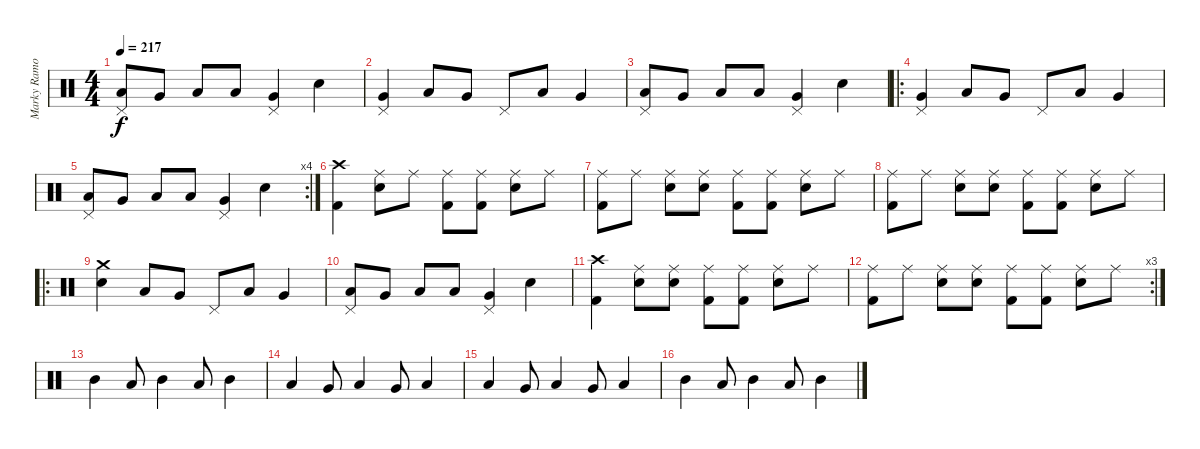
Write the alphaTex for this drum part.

\track ("Marky Ramone" "Marky Ramo") {instrument percussion}
\staff {score}
\articulation defaults
\ts (4 4)
\tempo 217
\clef neutral
\ks c
("Pedal Hi-Hat (hit)" "Low Tom (hit)").8{dy f} "Very Low Tom (hit)".8 "Low Floor Tom (hit)".8 "Low Tom (hit)".8 ("Pedal Hi-Hat (hit)" "Very Low Tom (hit)").4 "Electric Snare (hit)".4 |
("Pedal Hi-Hat (hit)" "Very Low Tom (hit)").4 "Low Tom (hit)".8 "Very Low Tom (hit)".8 "Pedal Hi-Hat (hit)".8 "Low Tom (hit)".8 "Very Low Tom (hit)".4 |
("Pedal Hi-Hat (hit)" "Low Tom (hit)").8 "Very Low Tom (hit)".8 "Low Floor Tom (hit)".8 "Low Tom (hit)".8 ("Pedal Hi-Hat (hit)" "Very Low Tom (hit)").4 "Electric Snare (hit)".4 |
\ro
("Pedal Hi-Hat (hit)" "Very Low Tom (hit)").4 "Low Tom (hit)".8 "Very Low Tom (hit)".8 "Pedal Hi-Hat (hit)".8 "Low Tom (hit)".8 "Very Low Tom (hit)".4 |
\rc 4
("Pedal Hi-Hat (hit)" "Low Tom (hit)").8 "Very Low Tom (hit)".8 "Low Floor Tom (hit)".8 "Low Tom (hit)".8 ("Pedal Hi-Hat (hit)" "Very Low Tom (hit)").4 "Electric Snare (hit)".4 |
("Crash high (hit)" "Kick (hit) 2").4 ("Ride (middle)" "Electric Snare (hit)").8 "Ride (middle)".8 ("Ride (middle)" "Kick (hit) 2").8 ("Ride (middle)" "Kick (hit) 2").8 ("Ride (middle)" "Electric Snare (hit)").8 "Ride (middle)".8 |
("Ride (middle)" "Kick (hit) 2").8 "Ride (middle)".8 ("Ride (middle)" "Electric Snare (hit)").8 ("Ride (middle)" "Electric Snare (hit)").8 ("Ride (middle)" "Kick (hit) 2").8 ("Ride (middle)" "Kick (hit) 2").8 ("Ride (middle)" "Electric Snare (hit)").8 "Ride (middle)".8 |
("Ride (middle)" "Kick (hit) 2").8 "Ride (middle)".8 ("Ride (middle)" "Electric Snare (hit)").8 ("Ride (middle)" "Electric Snare (hit)").8 ("Ride (middle)" "Kick (hit) 2").8 ("Ride (middle)" "Kick (hit) 2").8 ("Ride (middle)" "Electric Snare (hit)").8 "Ride (middle)".8 |
\ro
("Crash medium (hit)" "Electric Snare (hit)").4 "Low Tom (hit)".8 "Very Low Tom (hit)".8 "Pedal Hi-Hat (hit)".8 "Low Tom (hit)".8 "Very Low Tom (hit)".4 |
("Pedal Hi-Hat (hit)" "Low Tom (hit)").8 "Very Low Tom (hit)".8 "Low Floor Tom (hit)".8 "Low Tom (hit)".8 ("Pedal Hi-Hat (hit)" "Very Low Tom (hit)").4 "Electric Snare (hit)".4 |
("Crash high (hit)" "Kick (hit) 2").4 ("Ride (middle)" "Electric Snare (hit)").8 ("Ride (middle)" "Electric Snare (hit)").8 ("Ride (middle)" "Kick (hit) 2").8 ("Ride (middle)" "Kick (hit) 2").8 ("Ride (middle)" "Electric Snare (hit)").8 "Ride (middle)".8 |
\rc 3
("Ride (middle)" "Kick (hit) 2").8 "Ride (middle)".8 ("Ride (middle)" "Electric Snare (hit)").8 ("Ride (middle)" "Electric Snare (hit)").8 ("Ride (middle)" "Kick (hit) 2").8 ("Ride (middle)" "Kick (hit) 2").8 ("Ride (middle)" "Electric Snare (hit)").8 "Ride (middle)".8 |
"Mid Tom (hit)".4 "Low Tom (hit)".8 "Mid Tom (hit)".4 "Low Tom (hit)".8 "Mid Tom (hit)".4 |
"Low Tom (hit)".4 "Very Low Tom (hit)".8 "Low Tom (hit)".4 "Very Low Tom (hit)".8 "Low Tom (hit)".4 |
"Low Tom (hit)".4 "Very Low Tom (hit)".8 "Low Tom (hit)".4 "Very Low Tom (hit)".8 "Low Tom (hit)".4 |
"Mid Tom (hit)".4 "Low Tom (hit)".8 "Mid Tom (hit)".4 "Low Tom (hit)".8 "Mid Tom (hit)".4
